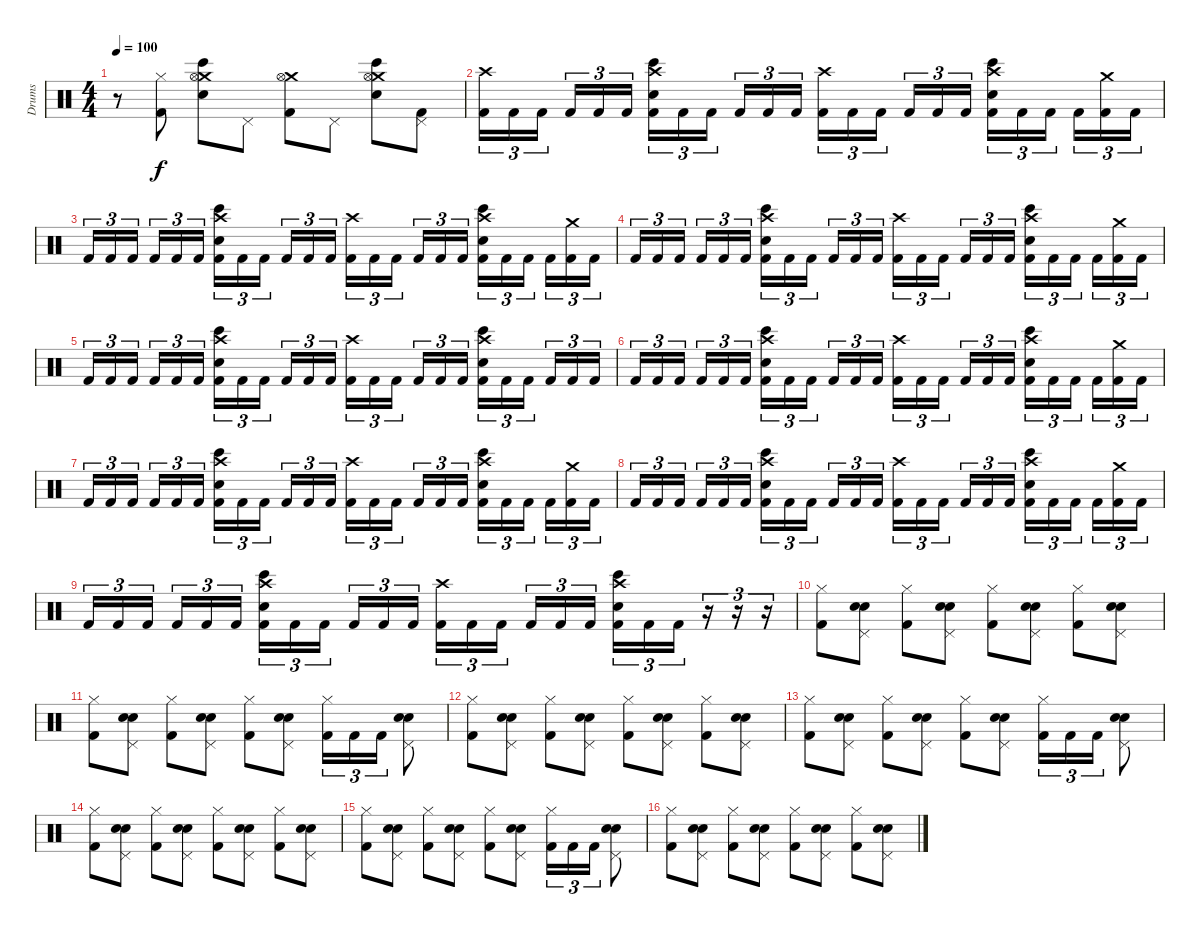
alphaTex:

\track ("Drums" "Drums") {instrument percussion}
\staff {score}
\articulation defaults
\ts (4 4)
\tempo 100
\clef neutral
\ks c
r.8{dy f} ("Hi-Hat (closed)" "Kick (hit) 2").8 ("Crash medium (hit)" "Hi-Hat (open)" "Bongo High (hit)" "Electric Snare (hit)").8 "Pedal Hi-Hat (hit)".8 ("Crash medium (hit)" "Hi-Hat (open)" "Kick (hit) 2").8 "Pedal Hi-Hat (hit)".8 ("Crash medium (hit)" "Hi-Hat (open)" "Bongo High (hit)" "Electric Snare (hit)").8 ("Pedal Hi-Hat (hit)" "Kick (hit) 2").8 |
("Crash high (hit)" "Kick (hit) 2").16{tu (3 2)} "Kick (hit) 2".16{tu (3 2)} "Kick (hit) 2".16{tu (3 2) beam splitsecondary} "Kick (hit) 2".16{tu (3 2)} "Kick (hit) 2".16{tu (3 2)} "Kick (hit) 2".16{tu (3 2)} ("Crash high (hit)" "Kick (hit) 2" "Bongo High (hit)" "Electric Snare (hit)").16{tu (3 2)} "Kick (hit) 2".16{tu (3 2)} "Kick (hit) 2".16{tu (3 2) beam splitsecondary} "Kick (hit) 2".16{tu (3 2)} "Kick (hit) 2".16{tu (3 2)} "Kick (hit) 2".16{tu (3 2)} ("Crash high (hit)" "Kick (hit) 2").16{tu (3 2)} "Kick (hit) 2".16{tu (3 2)} "Kick (hit) 2".16{tu (3 2) beam splitsecondary} "Kick (hit) 2".16{tu (3 2)} "Kick (hit) 2".16{tu (3 2)} "Kick (hit) 2".16{tu (3 2)} ("Crash high (hit)" "Kick (hit) 2" "Bongo High (hit)" "Electric Snare (hit)").16{tu (3 2)} "Kick (hit) 2".16{tu (3 2)} "Kick (hit) 2".16{tu (3 2) beam splitsecondary} "Kick (hit) 2".16{tu (3 2)} ("Crash medium (hit)" "Kick (hit) 2").16{tu (3 2)} "Kick (hit) 2".16{tu (3 2)} |
"Kick (hit) 2".16{tu (3 2)} "Kick (hit) 2".16{tu (3 2)} "Kick (hit) 2".16{tu (3 2) beam splitsecondary} "Kick (hit) 2".16{tu (3 2)} "Kick (hit) 2".16{tu (3 2)} "Kick (hit) 2".16{tu (3 2)} ("Crash high (hit)" "Kick (hit) 2" "Bongo High (hit)" "Electric Snare (hit)").16{tu (3 2)} "Kick (hit) 2".16{tu (3 2)} "Kick (hit) 2".16{tu (3 2) beam splitsecondary} "Kick (hit) 2".16{tu (3 2)} "Kick (hit) 2".16{tu (3 2)} "Kick (hit) 2".16{tu (3 2)} ("Crash high (hit)" "Kick (hit) 2").16{tu (3 2)} "Kick (hit) 2".16{tu (3 2)} "Kick (hit) 2".16{tu (3 2) beam splitsecondary} "Kick (hit) 2".16{tu (3 2)} "Kick (hit) 2".16{tu (3 2)} "Kick (hit) 2".16{tu (3 2)} ("Crash high (hit)" "Kick (hit) 2" "Bongo High (hit)" "Electric Snare (hit)").16{tu (3 2)} "Kick (hit) 2".16{tu (3 2)} "Kick (hit) 2".16{tu (3 2) beam splitsecondary} "Kick (hit) 2".16{tu (3 2)} ("Crash medium (hit)" "Kick (hit) 2").16{tu (3 2)} "Kick (hit) 2".16{tu (3 2)} |
"Kick (hit) 2".16{tu (3 2)} "Kick (hit) 2".16{tu (3 2)} "Kick (hit) 2".16{tu (3 2) beam splitsecondary} "Kick (hit) 2".16{tu (3 2)} "Kick (hit) 2".16{tu (3 2)} "Kick (hit) 2".16{tu (3 2)} ("Crash high (hit)" "Kick (hit) 2" "Bongo High (hit)" "Electric Snare (hit)").16{tu (3 2)} "Kick (hit) 2".16{tu (3 2)} "Kick (hit) 2".16{tu (3 2) beam splitsecondary} "Kick (hit) 2".16{tu (3 2)} "Kick (hit) 2".16{tu (3 2)} "Kick (hit) 2".16{tu (3 2)} ("Crash high (hit)" "Kick (hit) 2").16{tu (3 2)} "Kick (hit) 2".16{tu (3 2)} "Kick (hit) 2".16{tu (3 2) beam splitsecondary} "Kick (hit) 2".16{tu (3 2)} "Kick (hit) 2".16{tu (3 2)} "Kick (hit) 2".16{tu (3 2)} ("Crash high (hit)" "Kick (hit) 2" "Bongo High (hit)" "Electric Snare (hit)").16{tu (3 2)} "Kick (hit) 2".16{tu (3 2)} "Kick (hit) 2".16{tu (3 2) beam splitsecondary} "Kick (hit) 2".16{tu (3 2)} ("Crash medium (hit)" "Kick (hit) 2").16{tu (3 2)} "Kick (hit) 2".16{tu (3 2)} |
"Kick (hit) 2".16{tu (3 2)} "Kick (hit) 2".16{tu (3 2)} "Kick (hit) 2".16{tu (3 2) beam splitsecondary} "Kick (hit) 2".16{tu (3 2)} "Kick (hit) 2".16{tu (3 2)} "Kick (hit) 2".16{tu (3 2)} ("Crash high (hit)" "Kick (hit) 2" "Bongo High (hit)" "Electric Snare (hit)").16{tu (3 2)} "Kick (hit) 2".16{tu (3 2)} "Kick (hit) 2".16{tu (3 2) beam splitsecondary} "Kick (hit) 2".16{tu (3 2)} "Kick (hit) 2".16{tu (3 2)} "Kick (hit) 2".16{tu (3 2)} ("Crash high (hit)" "Kick (hit) 2").16{tu (3 2)} "Kick (hit) 2".16{tu (3 2)} "Kick (hit) 2".16{tu (3 2) beam splitsecondary} "Kick (hit) 2".16{tu (3 2)} "Kick (hit) 2".16{tu (3 2)} "Kick (hit) 2".16{tu (3 2)} ("Crash high (hit)" "Kick (hit) 2" "Bongo High (hit)" "Electric Snare (hit)").16{tu (3 2)} "Kick (hit) 2".16{tu (3 2)} "Kick (hit) 2".16{tu (3 2) beam splitsecondary} "Kick (hit) 2".16{tu (3 2)} "Kick (hit) 2".16{tu (3 2)} "Kick (hit) 2".16{tu (3 2)} |
"Kick (hit) 2".16{tu (3 2)} "Kick (hit) 2".16{tu (3 2)} "Kick (hit) 2".16{tu (3 2) beam splitsecondary} "Kick (hit) 2".16{tu (3 2)} "Kick (hit) 2".16{tu (3 2)} "Kick (hit) 2".16{tu (3 2)} ("Crash high (hit)" "Kick (hit) 2" "Bongo High (hit)" "Electric Snare (hit)").16{tu (3 2)} "Kick (hit) 2".16{tu (3 2)} "Kick (hit) 2".16{tu (3 2) beam splitsecondary} "Kick (hit) 2".16{tu (3 2)} "Kick (hit) 2".16{tu (3 2)} "Kick (hit) 2".16{tu (3 2)} ("Crash high (hit)" "Kick (hit) 2").16{tu (3 2)} "Kick (hit) 2".16{tu (3 2)} "Kick (hit) 2".16{tu (3 2) beam splitsecondary} "Kick (hit) 2".16{tu (3 2)} "Kick (hit) 2".16{tu (3 2)} "Kick (hit) 2".16{tu (3 2)} ("Crash high (hit)" "Kick (hit) 2" "Bongo High (hit)" "Electric Snare (hit)").16{tu (3 2)} "Kick (hit) 2".16{tu (3 2)} "Kick (hit) 2".16{tu (3 2) beam splitsecondary} "Kick (hit) 2".16{tu (3 2)} ("Crash medium (hit)" "Kick (hit) 2").16{tu (3 2)} "Kick (hit) 2".16{tu (3 2)} |
"Kick (hit) 2".16{tu (3 2)} "Kick (hit) 2".16{tu (3 2)} "Kick (hit) 2".16{tu (3 2) beam splitsecondary} "Kick (hit) 2".16{tu (3 2)} "Kick (hit) 2".16{tu (3 2)} "Kick (hit) 2".16{tu (3 2)} ("Crash high (hit)" "Kick (hit) 2" "Bongo High (hit)" "Electric Snare (hit)").16{tu (3 2)} "Kick (hit) 2".16{tu (3 2)} "Kick (hit) 2".16{tu (3 2) beam splitsecondary} "Kick (hit) 2".16{tu (3 2)} "Kick (hit) 2".16{tu (3 2)} "Kick (hit) 2".16{tu (3 2)} ("Crash high (hit)" "Kick (hit) 2").16{tu (3 2)} "Kick (hit) 2".16{tu (3 2)} "Kick (hit) 2".16{tu (3 2) beam splitsecondary} "Kick (hit) 2".16{tu (3 2)} "Kick (hit) 2".16{tu (3 2)} "Kick (hit) 2".16{tu (3 2)} ("Crash high (hit)" "Kick (hit) 2" "Bongo High (hit)" "Electric Snare (hit)").16{tu (3 2)} "Kick (hit) 2".16{tu (3 2)} "Kick (hit) 2".16{tu (3 2) beam splitsecondary} "Kick (hit) 2".16{tu (3 2)} ("Crash medium (hit)" "Kick (hit) 2").16{tu (3 2)} "Kick (hit) 2".16{tu (3 2)} |
"Kick (hit) 2".16{tu (3 2)} "Kick (hit) 2".16{tu (3 2)} "Kick (hit) 2".16{tu (3 2) beam splitsecondary} "Kick (hit) 2".16{tu (3 2)} "Kick (hit) 2".16{tu (3 2)} "Kick (hit) 2".16{tu (3 2)} ("Crash high (hit)" "Kick (hit) 2" "Bongo High (hit)" "Electric Snare (hit)").16{tu (3 2)} "Kick (hit) 2".16{tu (3 2)} "Kick (hit) 2".16{tu (3 2) beam splitsecondary} "Kick (hit) 2".16{tu (3 2)} "Kick (hit) 2".16{tu (3 2)} "Kick (hit) 2".16{tu (3 2)} ("Crash high (hit)" "Kick (hit) 2").16{tu (3 2)} "Kick (hit) 2".16{tu (3 2)} "Kick (hit) 2".16{tu (3 2) beam splitsecondary} "Kick (hit) 2".16{tu (3 2)} "Kick (hit) 2".16{tu (3 2)} "Kick (hit) 2".16{tu (3 2)} ("Crash high (hit)" "Kick (hit) 2" "Bongo High (hit)" "Electric Snare (hit)").16{tu (3 2)} "Kick (hit) 2".16{tu (3 2)} "Kick (hit) 2".16{tu (3 2) beam splitsecondary} "Kick (hit) 2".16{tu (3 2)} ("Crash medium (hit)" "Kick (hit) 2").16{tu (3 2)} "Kick (hit) 2".16{tu (3 2)} |
"Kick (hit) 2".16{tu (3 2)} "Kick (hit) 2".16{tu (3 2)} "Kick (hit) 2".16{tu (3 2) beam splitsecondary} "Kick (hit) 2".16{tu (3 2)} "Kick (hit) 2".16{tu (3 2)} "Kick (hit) 2".16{tu (3 2)} ("Crash high (hit)" "Kick (hit) 2" "Bongo High (hit)" "Electric Snare (hit)").16{tu (3 2)} "Kick (hit) 2".16{tu (3 2)} "Kick (hit) 2".16{tu (3 2) beam splitsecondary} "Kick (hit) 2".16{tu (3 2)} "Kick (hit) 2".16{tu (3 2)} "Kick (hit) 2".16{tu (3 2)} ("Crash high (hit)" "Kick (hit) 2").16{tu (3 2)} "Kick (hit) 2".16{tu (3 2)} "Kick (hit) 2".16{tu (3 2) beam splitsecondary} "Kick (hit) 2".16{tu (3 2)} "Kick (hit) 2".16{tu (3 2)} "Kick (hit) 2".16{tu (3 2)} ("Crash high (hit)" "Kick (hit) 2" "Bongo High (hit)" "Electric Snare (hit)").16{tu (3 2)} "Kick (hit) 2".16{tu (3 2)} "Kick (hit) 2".16{tu (3 2)} r.16{tu (3 2)} r.16{tu (3 2)} r.16{tu (3 2)} |
("Hi-Hat (closed)" "Kick (hit) 2").8 ("Pedal Hi-Hat (hit)" "Snare (hit) 2" "Electric Snare (hit)").8 ("Hi-Hat (closed)" "Kick (hit) 2").8 ("Pedal Hi-Hat (hit)" "Snare (hit) 2" "Electric Snare (hit)").8 ("Hi-Hat (closed)" "Kick (hit) 2").8 ("Pedal Hi-Hat (hit)" "Snare (hit) 2" "Electric Snare (hit)").8 ("Hi-Hat (closed)" "Kick (hit) 2").8 ("Pedal Hi-Hat (hit)" "Snare (hit) 2" "Electric Snare (hit)").8 |
("Hi-Hat (closed)" "Kick (hit) 2").8 ("Pedal Hi-Hat (hit)" "Snare (hit) 2" "Electric Snare (hit)").8 ("Hi-Hat (closed)" "Kick (hit) 2").8 ("Pedal Hi-Hat (hit)" "Snare (hit) 2" "Electric Snare (hit)").8 ("Hi-Hat (closed)" "Kick (hit) 2").8 ("Pedal Hi-Hat (hit)" "Snare (hit) 2" "Electric Snare (hit)").8 ("Hi-Hat (closed)" "Kick (hit) 2").16{tu (3 2)} "Kick (hit) 2".16{tu (3 2)} "Kick (hit) 2".16{tu (3 2)} ("Pedal Hi-Hat (hit)" "Snare (hit) 2" "Electric Snare (hit)").8 |
("Hi-Hat (closed)" "Kick (hit) 2").8 ("Pedal Hi-Hat (hit)" "Snare (hit) 2" "Electric Snare (hit)").8 ("Hi-Hat (closed)" "Kick (hit) 2").8 ("Pedal Hi-Hat (hit)" "Snare (hit) 2" "Electric Snare (hit)").8 ("Hi-Hat (closed)" "Kick (hit) 2").8 ("Pedal Hi-Hat (hit)" "Snare (hit) 2" "Electric Snare (hit)").8 ("Hi-Hat (closed)" "Kick (hit) 2").8 ("Pedal Hi-Hat (hit)" "Snare (hit) 2" "Electric Snare (hit)").8 |
("Hi-Hat (closed)" "Kick (hit) 2").8 ("Pedal Hi-Hat (hit)" "Snare (hit) 2" "Electric Snare (hit)").8 ("Hi-Hat (closed)" "Kick (hit) 2").8 ("Pedal Hi-Hat (hit)" "Snare (hit) 2" "Electric Snare (hit)").8 ("Hi-Hat (closed)" "Kick (hit) 2").8 ("Pedal Hi-Hat (hit)" "Snare (hit) 2" "Electric Snare (hit)").8 ("Hi-Hat (closed)" "Kick (hit) 2").16{tu (3 2)} "Kick (hit) 2".16{tu (3 2)} "Kick (hit) 2".16{tu (3 2)} ("Pedal Hi-Hat (hit)" "Snare (hit) 2" "Electric Snare (hit)").8 |
("Hi-Hat (closed)" "Kick (hit) 2").8 ("Pedal Hi-Hat (hit)" "Snare (hit) 2" "Electric Snare (hit)").8 ("Hi-Hat (closed)" "Kick (hit) 2").8 ("Pedal Hi-Hat (hit)" "Snare (hit) 2" "Electric Snare (hit)").8 ("Hi-Hat (closed)" "Kick (hit) 2").8 ("Pedal Hi-Hat (hit)" "Snare (hit) 2" "Electric Snare (hit)").8 ("Hi-Hat (closed)" "Kick (hit) 2").8 ("Pedal Hi-Hat (hit)" "Snare (hit) 2" "Electric Snare (hit)").8 |
("Hi-Hat (closed)" "Kick (hit) 2").8 ("Pedal Hi-Hat (hit)" "Snare (hit) 2" "Electric Snare (hit)").8 ("Hi-Hat (closed)" "Kick (hit) 2").8 ("Pedal Hi-Hat (hit)" "Snare (hit) 2" "Electric Snare (hit)").8 ("Hi-Hat (closed)" "Kick (hit) 2").8 ("Pedal Hi-Hat (hit)" "Snare (hit) 2" "Electric Snare (hit)").8 ("Hi-Hat (closed)" "Kick (hit) 2").16{tu (3 2)} "Kick (hit) 2".16{tu (3 2)} "Kick (hit) 2".16{tu (3 2)} ("Pedal Hi-Hat (hit)" "Snare (hit) 2" "Electric Snare (hit)").8 |
("Hi-Hat (closed)" "Kick (hit) 2").8 ("Pedal Hi-Hat (hit)" "Snare (hit) 2" "Electric Snare (hit)").8 ("Hi-Hat (closed)" "Kick (hit) 2").8 ("Pedal Hi-Hat (hit)" "Snare (hit) 2" "Electric Snare (hit)").8 ("Hi-Hat (closed)" "Kick (hit) 2").8 ("Pedal Hi-Hat (hit)" "Snare (hit) 2" "Electric Snare (hit)").8 ("Hi-Hat (closed)" "Kick (hit) 2").8 ("Pedal Hi-Hat (hit)" "Snare (hit) 2" "Electric Snare (hit)").8
